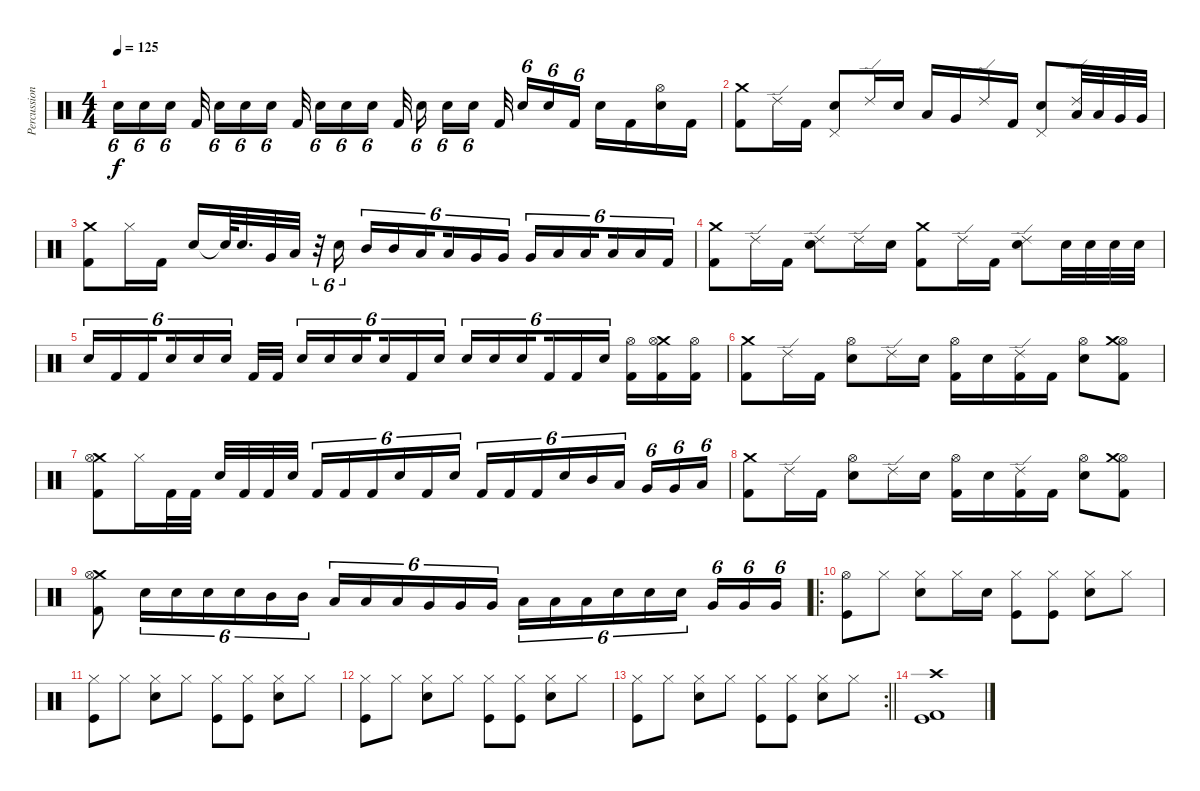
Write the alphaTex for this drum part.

\track ("Percussion" "Percussion") {instrument percussion}
\staff {score}
\articulation defaults
\ts (4 4)
\tempo 125
\clef neutral
\ks c "Electric Snare (hit)".16{tu (6 4) dy f} "Electric Snare (hit)".16{tu (6 4)} "Electric Snare (hit)".16{tu (6 4) beam splitsecondary} "Kick (hit) 2".32{beam splitsecondary} "Electric Snare (hit)".16{tu (6 4)} "Electric Snare (hit)".16{tu (6 4)} "Electric Snare (hit)".16{tu (6 4)} "Kick (hit) 2".32{beam splitsecondary} "Electric Snare (hit)".16{tu (6 4)} "Electric Snare (hit)".16{tu (6 4)} "Electric Snare (hit)".16{tu (6 4) beam splitsecondary} "Kick (hit) 2".32 "Electric Snare (hit)".16{tu (6 4)} "Electric Snare (hit)".16{tu (6 4)} "Electric Snare (hit)".16{tu (6 4) beam splitsecondary} "Kick (hit) 2".32{beam splitsecondary} "Electric Snare (hit)".16{tu (6 4)} "Electric Snare (hit)".16{tu (6 4)} "Kick (hit) 2".16{tu (6 4)} "Electric Snare (hit)".16 "Kick (hit) 2".16
("Hi-Hat (open)" "Electric Snare (hit)").16 "Kick (hit) 2".16 |
("Crash medium (hit)" "Kick (hit) 2").8 "Ride (edge) 2".16 "Kick (hit) 2".16 ("Pedal Hi-Hat (hit)" "Electric Snare (hit)").8 "Ride (edge) 2".16 "Electric Snare (hit)".16 "Low Tom (hit)".16 "Very Low Tom (hit)".16 "Ride (edge) 2".16 "Kick (hit) 2".16 ("Pedal Hi-Hat (hit)" "Electric Snare (hit)").8 ("Ride (edge) 2" "Low Tom (hit)").32 "Low Tom (hit)".32 "Very Low Tom (hit)".32 "Very Low Tom (hit)".32 |
("Crash medium (hit)" "Kick (hit) 2").8 "Hi-Hat (closed)".16 "Kick (hit) 2".16 "Electric Snare (hit)".16 "Snare (hit)"{t}.64 "Electric Snare (hit)".32{d} "Very Low Tom (hit)".32 "Low Floor Tom (hit)".32 r.32{tu (6 4)} "Electric Snare (hit)".16{tu (6 4)} "Mid Tom (hit)".16{tu (6 4)} "Mid Tom (hit)".16{tu (6 4)} "Low Tom (hit)".16{tu (6 4) beam splitsecondary} "Low Tom (hit)".16{tu (6 4)} "Very Low Tom (hit)".16{tu (6 4)} "Very Low Tom (hit)".16{tu (6 4)} "Very Low Tom (hit)".16{tu (6 4)} "Low Floor Tom (hit)".16{tu (6 4)} "Low Floor Tom (hit)".16{tu (6 4) beam splitsecondary} "Low Floor Tom (hit)".16{tu (6 4)} "Low Floor Tom (hit)".16{tu (6 4)} "Kick (hit) 2".16{tu (6 4)} |
("Crash medium (hit)" "Kick (hit) 2").8 "Ride (edge) 2".16 "Kick (hit) 2".16 ("Electric Snare (hit)" "Ride (edge) 2").8 "Ride (edge) 2".16 "Electric Snare (hit)".16 ("Crash medium (hit)" "Kick (hit) 2").8 "Ride (edge) 2".16 "Kick (hit) 2".16 ("Electric Snare (hit)" "Ride (edge) 2").8 "Electric Snare (hit)".32 "Electric Snare (hit)".32 "Electric Snare (hit)".32 "Electric Snare (hit)".32 |
"Electric Snare (hit)".16{tu (6 4)} "Kick (hit) 2".16{tu (6 4)} "Kick (hit) 2".16{tu (6 4) beam splitsecondary} "Electric Snare (hit)".16{tu (6 4)} "Electric Snare (hit)".16{tu (6 4)} "Electric Snare (hit)".16{tu (6 4)} "Kick (hit) 2".32 "Kick (hit) 2".32{beam splitsecondary} "Electric Snare (hit)".16{tu (6 4)} "Electric Snare (hit)".16{tu (6 4)} "Electric Snare (hit)".16{tu (6 4) beam splitsecondary} "Electric Snare (hit)".16{tu (6 4)} "Kick (hit) 2".16{tu (6 4)} "Electric Snare (hit)".16{tu (6 4) beam splitsecondary} "Electric Snare (hit)".16{tu (6 4)} "Electric Snare (hit)".16{tu (6 4)} "Electric Snare (hit)".16{tu (6 4) beam splitsecondary} "Kick (hit) 2".16{tu (6 4)} "Kick (hit) 2".16{tu (6 4)} "Electric Snare (hit)".16{tu (6 4) beam splitsecondary} ("Hi-Hat (open)" "Kick (hit) 2").16 ("Crash medium (hit)" "Hi-Hat (open)" "Kick (hit) 2").16 ("Hi-Hat (open)" "Kick (hit) 2").16 |
("Crash medium (hit)" "Kick (hit) 2").8 "Ride (edge) 2".16 "Kick (hit) 2".16 ("Hi-Hat (open)" "Electric Snare (hit)").8 "Ride (edge) 2".16 "Electric Snare (hit)".16 ("Hi-Hat (open)" "Kick (hit) 2").16 "Electric Snare (hit)".16 ("Ride (edge) 2" "Kick (hit) 2").16 "Kick (hit) 2".16 ("Hi-Hat (open)" "Electric Snare (hit)").8 ("Hi-Hat (open)" "Kick (hit) 2" "Crash medium (hit)").8 |
("Crash medium (hit)" "Hi-Hat (open)" "Kick (hit) 2").8 "Hi-Hat (closed)".16 "Kick (hit) 2".32 "Kick (hit) 2".32 "Electric Snare (hit)".32 "Kick (hit) 2".32 "Kick (hit) 2".32 "Electric Snare (hit)".32{beam splitsecondary} "Kick (hit) 2".16{tu (6 4)} "Kick (hit) 2".16{tu (6 4)} "Kick (hit) 2".16{tu (6 4)} "Electric Snare (hit)".16{tu (6 4)} "Kick (hit) 2".16{tu (6 4)} "Electric Snare (hit)".16{tu (6 4) beam splitsecondary} "Kick (hit) 2".16{tu (6 4)} "Kick (hit) 2".16{tu (6 4)} "Kick (hit) 2".16{tu (6 4)} "Electric Snare (hit)".16{tu (6 4)} "Mid Tom (hit)".16{tu (6 4)} "Low Tom (hit)".16{tu (6 4) beam splitsecondary} "Very Low Tom (hit)".16{tu (6 4)} "Very Low Tom (hit)".16{tu (6 4)} "Low Floor Tom (hit)".16{tu (6 4)} |
("Crash medium (hit)" "Kick (hit) 2").8 "Ride (edge) 2".16 "Kick (hit) 2".16 ("Hi-Hat (open)" "Electric Snare (hit)").8 "Ride (edge) 2".16 "Electric Snare (hit)".16 ("Hi-Hat (open)" "Kick (hit) 2").16 "Electric Snare (hit)".16 ("Ride (edge) 2" "Kick (hit) 2").16 "Kick (hit) 2".16 ("Hi-Hat (open)" "Electric Snare (hit)").8 ("Hi-Hat (open)" "Kick (hit) 2" "Crash medium (hit)").8 |
("Crash medium (hit)" "Hi-Hat (open)" "Kick (hit) 2").8 "Electric Snare (hit)".16{tu (6 4)} "Electric Snare (hit)".16{tu (6 4)} "Electric Snare (hit)".16{tu (6 4)} "Electric Snare (hit)".16{tu (6 4)} "Mid Tom (hit)".16{tu (6 4)} "Mid Tom (hit)".16{tu (6 4) beam splitsecondary} "Low Tom (hit)".16{tu (6 4)} "Low Tom (hit)".16{tu (6 4)} "Low Tom (hit)".16{tu (6 4)} "Very Low Tom (hit)".16{tu (6 4)} "Very Low Tom (hit)".16{tu (6 4)} "Very Low Tom (hit)".16{tu (6 4) beam splitsecondary} "Low Floor Tom (hit)".16{tu (6 4)} "Low Floor Tom (hit)".16{tu (6 4)} "Low Floor Tom (hit)".16{tu (6 4)} "Electric Snare (hit)".16{tu (6 4)} "Electric Snare (hit)".16{tu (6 4)} "Electric Snare (hit)".16{tu (6 4) beam splitsecondary} "Very Low Tom (hit)".16{tu (6 4)} "Very Low Tom (hit)".16{tu (6 4)} "Very Low Tom (hit)".16{tu (6 4)} |
\ro
("Hi-Hat (open)" "Kick (hit)").8 "Hi-Hat (closed)".8 ("Electric Snare (hit)" "Hi-Hat (closed)").8 "Hi-Hat (closed)".16 "Electric Snare (hit)".16 ("Hi-Hat (closed)" "Kick (hit)").8 ("Hi-Hat (closed)" "Kick (hit)").8 ("Electric Snare (hit)" "Hi-Hat (closed)").8 "Hi-Hat (closed)".8 |
("Hi-Hat (closed)" "Kick (hit)").8 "Hi-Hat (closed)".8 ("Electric Snare (hit)" "Hi-Hat (closed)").8 "Hi-Hat (closed)".8 ("Hi-Hat (closed)" "Kick (hit)").8 ("Hi-Hat (closed)" "Kick (hit)").8 ("Electric Snare (hit)" "Hi-Hat (closed)").8 "Hi-Hat (closed)".8 |
("Hi-Hat (closed)" "Kick (hit)").8 "Hi-Hat (closed)".8 ("Electric Snare (hit)" "Hi-Hat (closed)").8 "Hi-Hat (closed)".8 ("Hi-Hat (closed)" "Kick (hit)").8 ("Hi-Hat (closed)" "Kick (hit)").8 ("Electric Snare (hit)" "Hi-Hat (closed)").8 "Hi-Hat (closed)".8 |
\rc 2
\barLineRight lightlight
("Hi-Hat (closed)" "Kick (hit)").8 "Hi-Hat (closed)".8 ("Electric Snare (hit)" "Hi-Hat (closed)").8 "Hi-Hat (closed)".8 ("Hi-Hat (closed)" "Kick (hit)").8 ("Hi-Hat (closed)" "Kick (hit)").8 ("Electric Snare (hit)" "Hi-Hat (closed)").8 "Hi-Hat (closed)".8 |
("Kick (hit) 2" "Crash high (hit)" "Kick (hit)").1
